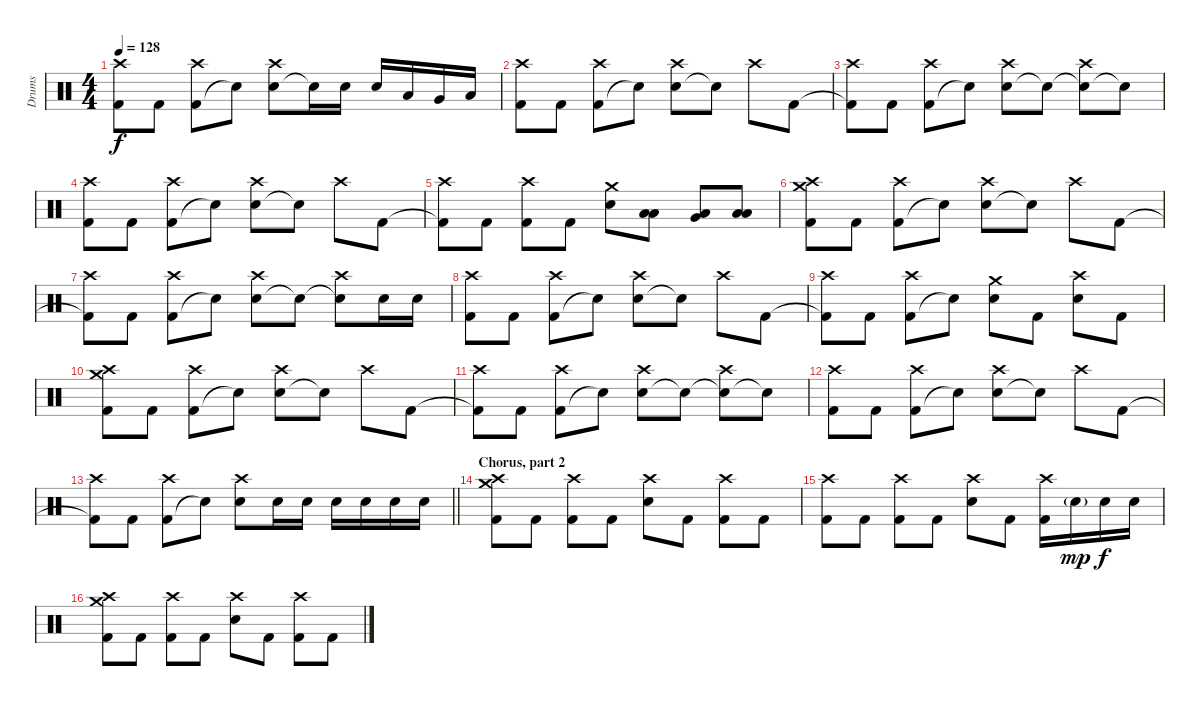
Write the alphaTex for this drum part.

\track ("Drums" "Drums") {instrument percussion}
\staff {score}
\articulation defaults
\ts (4 4)
\tempo 128
\clef neutral
\ks c
("Kick (hit) 2"{t} "Crash high (hit)").8{dy f} "Kick (hit) 2".8 ("Kick (hit) 2" "Crash high (hit)").8 "Electric Snare (hit)"{t}.8 ("Electric Snare (hit)" "Crash high (hit)").8 "Electric Snare (hit)"{t}.16 "Electric Snare (hit)".16 "Electric Snare (hit)".16 "Low Tom (hit)".16 "Very Low Tom (hit)".16 "Low Floor Tom (hit)".16 |
("Kick (hit) 2" "Crash high (hit)").8 "Kick (hit) 2".8 ("Kick (hit) 2" "Crash high (hit)").8 "Electric Snare (hit)"{t}.8 ("Electric Snare (hit)" "Crash high (hit)").8 "Snare (hit)"{t}.8 "Crash high (hit)".8 "Kick (hit) 2".8 |
("Kick (hit) 2"{t} "Crash high (hit)").8 "Kick (hit) 2".8 ("Kick (hit) 2" "Crash high (hit)").8 "Electric Snare (hit)"{t}.8 ("Electric Snare (hit)" "Crash high (hit)").8 "Snare (hit)"{t}.8 ("Snare (hit)"{t} "Crash high (hit)").8 "Snare (hit)"{t}.8 |
("Kick (hit) 2" "Crash high (hit)").8 "Kick (hit) 2".8 ("Kick (hit) 2" "Crash high (hit)").8 "Electric Snare (hit)"{t}.8 ("Electric Snare (hit)" "Crash high (hit)").8 "Snare (hit)"{t}.8 "Crash high (hit)".8 "Kick (hit) 2".8 |
("Kick (hit) 2"{t} "Crash high (hit)").8 "Kick (hit) 2".8 ("Kick (hit) 2" "Crash high (hit)").8 "Kick (hit) 2".8 ("Electric Snare (hit)" "Crash medium (hit)").8 ("Low Tom (hit)" "Low Floor Tom (hit)").8 ("Very Low Tom (hit)" "Low Floor Tom (hit)").8 ("Low Floor Tom (hit)" "Low Floor Tom (hit)").8 |
("Kick (hit) 2" "Crash medium (hit)" "Crash high (hit)").8 "Kick (hit) 2".8 ("Kick (hit) 2" "Crash high (hit)").8 "Electric Snare (hit)"{t}.8 ("Electric Snare (hit)" "Crash high (hit)").8 "Snare (hit)"{t}.8 "Crash high (hit)".8 "Kick (hit) 2".8 |
("Kick (hit) 2"{t} "Crash high (hit)").8 "Kick (hit) 2".8 ("Kick (hit) 2" "Crash high (hit)").8 "Electric Snare (hit)"{t}.8 ("Electric Snare (hit)" "Crash high (hit)").8 "Snare (hit)"{t}.8 ("Snare (hit)"{t} "Crash high (hit)").8 "Electric Snare (hit)".16 "Electric Snare (hit)".16 |
("Kick (hit) 2" "Crash high (hit)").8 "Kick (hit) 2".8 ("Kick (hit) 2" "Crash high (hit)").8 "Electric Snare (hit)"{t}.8 ("Electric Snare (hit)" "Crash high (hit)").8 "Snare (hit)"{t}.8 "Crash high (hit)".8 "Kick (hit) 2".8 |
("Kick (hit) 2"{t} "Crash high (hit)").8 "Kick (hit) 2".8 ("Kick (hit) 2" "Crash high (hit)").8 "Electric Snare (hit)"{t}.8 ("Electric Snare (hit)" "Crash medium (hit)").8 "Kick (hit) 2".8 ("Electric Snare (hit)" "Crash high (hit)").8 "Kick (hit) 2".8 |
("Kick (hit) 2" "Crash medium (hit)" "Crash high (hit)").8 "Kick (hit) 2".8 ("Kick (hit) 2" "Crash high (hit)").8 "Electric Snare (hit)"{t}.8 ("Electric Snare (hit)" "Crash high (hit)").8 "Snare (hit)"{t}.8 "Crash high (hit)".8 "Kick (hit) 2".8 |
("Kick (hit) 2"{t} "Crash high (hit)").8 "Kick (hit) 2".8 ("Kick (hit) 2" "Crash high (hit)").8 "Electric Snare (hit)"{t}.8 ("Electric Snare (hit)" "Crash high (hit)").8 "Snare (hit)"{t}.8 ("Snare (hit)"{t} "Crash high (hit)").8 "Snare (hit)"{t}.8 |
("Kick (hit) 2" "Crash high (hit)").8 "Kick (hit) 2".8 ("Kick (hit) 2" "Crash high (hit)").8 "Electric Snare (hit)"{t}.8 ("Electric Snare (hit)" "Crash high (hit)").8 "Snare (hit)"{t}.8 "Crash high (hit)".8 "Kick (hit) 2".8 |
\barLineRight lightlight
("Kick (hit) 2"{t} "Crash high (hit)").8 "Kick (hit) 2".8 ("Kick (hit) 2" "Crash high (hit)").8 "Electric Snare (hit)"{t}.8 ("Electric Snare (hit)" "Crash high (hit)").8 "Electric Snare (hit)".16 "Electric Snare (hit)".16 "Electric Snare (hit)".16 "Electric Snare (hit)".16 "Electric Snare (hit)".16 "Electric Snare (hit)".16 |
\section ("" "Chorus, part 2")
("Kick (hit) 2" "Crash medium (hit)" "Crash high (hit)").8 "Kick (hit) 2".8 ("Kick (hit) 2" "Crash high (hit)").8 "Kick (hit) 2".8 ("Electric Snare (hit)" "Crash high (hit)").8 "Kick (hit) 2".8 ("Kick (hit) 2" "Crash high (hit)").8 "Kick (hit) 2".8 |
("Kick (hit) 2" "Crash high (hit)").8 "Kick (hit) 2".8 ("Kick (hit) 2" "Crash high (hit)").8 "Kick (hit) 2".8 ("Electric Snare (hit)" "Crash high (hit)").8 "Kick (hit) 2".8 ("Kick (hit) 2" "Crash high (hit)").16 "Electric Snare (hit)"{g}.16{dy mp} "Electric Snare (hit)".16{dy f} "Electric Snare (hit)".16 |
("Kick (hit) 2" "Crash medium (hit)" "Crash high (hit)").8 "Kick (hit) 2".8 ("Kick (hit) 2" "Crash high (hit)").8 "Kick (hit) 2".8 ("Electric Snare (hit)" "Crash high (hit)").8 "Kick (hit) 2".8 ("Kick (hit) 2" "Crash high (hit)").8 "Kick (hit) 2".8
